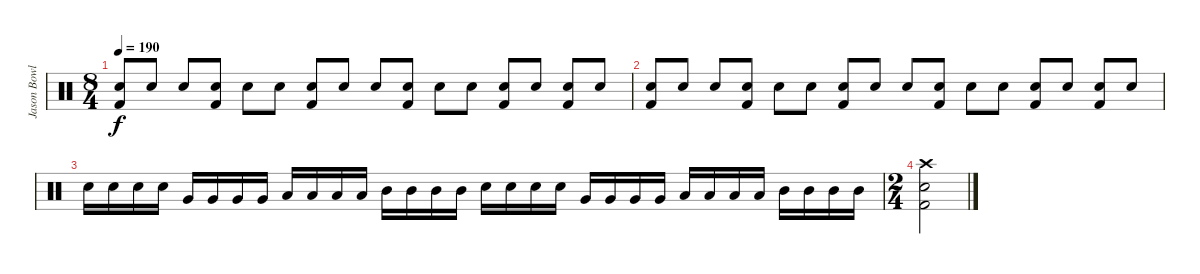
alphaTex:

\track ("Jason Bowld" "Jason Bowl") {instrument percussion}
\staff {score}
\articulation defaults
\ts (8 4)
\tempo 190
\clef neutral
\ks c
("Snare (hit) 2" "Kick (hit) 2").8{dy f} "Snare (hit) 2".8 "Snare (hit) 2".8 ("Snare (hit) 2" "Kick (hit) 2").8 "Snare (hit) 2".8 "Snare (hit) 2".8 ("Snare (hit) 2" "Kick (hit) 2").8 "Snare (hit) 2".8 "Snare (hit) 2".8 ("Snare (hit) 2" "Kick (hit) 2").8 "Snare (hit) 2".8 "Snare (hit) 2".8 ("Snare (hit) 2" "Kick (hit) 2").8 "Snare (hit) 2".8 ("Snare (hit) 2" "Kick (hit) 2").8 "Snare (hit) 2".8 |
("Snare (hit) 2" "Kick (hit) 2").8 "Snare (hit) 2".8 "Snare (hit) 2".8 ("Snare (hit) 2" "Kick (hit) 2").8 "Snare (hit) 2".8 "Snare (hit) 2".8 ("Snare (hit) 2" "Kick (hit) 2").8 "Snare (hit) 2".8 "Snare (hit) 2".8 ("Snare (hit) 2" "Kick (hit) 2").8 "Snare (hit) 2".8 "Snare (hit) 2".8 ("Snare (hit) 2" "Kick (hit) 2").8 "Snare (hit) 2".8 ("Snare (hit) 2" "Kick (hit) 2").8 "Snare (hit) 2".8 |
"Snare (hit) 2".16 "Snare (hit) 2".16 "Snare (hit) 2".16 "Snare (hit) 2".16 "Very Low Tom (hit)".16 "Very Low Tom (hit)".16 "Very Low Tom (hit)".16 "Very Low Tom (hit)".16 "Low Tom (hit)".16 "Low Tom (hit)".16 "Low Tom (hit)".16 "Low Tom (hit)".16 "Mid Tom (hit)".16 "Mid Tom (hit)".16 "Mid Tom (hit)".16 "Mid Tom (hit)".16 "Snare (hit) 2".16 "Snare (hit) 2".16 "Snare (hit) 2".16 "Snare (hit) 2".16 "Very Low Tom (hit)".16 "Very Low Tom (hit)".16 "Very Low Tom (hit)".16 "Very Low Tom (hit)".16 "Low Tom (hit)".16 "Low Tom (hit)".16 "Low Tom (hit)".16 "Low Tom (hit)".16 "Mid Tom (hit)".16 "Mid Tom (hit)".16 "Mid Tom (hit)".16 "Mid Tom (hit)".16 |
\ts (2 4)
("Snare (hit) 2" "Kick (hit) 2" "Crash high (hit)").2
